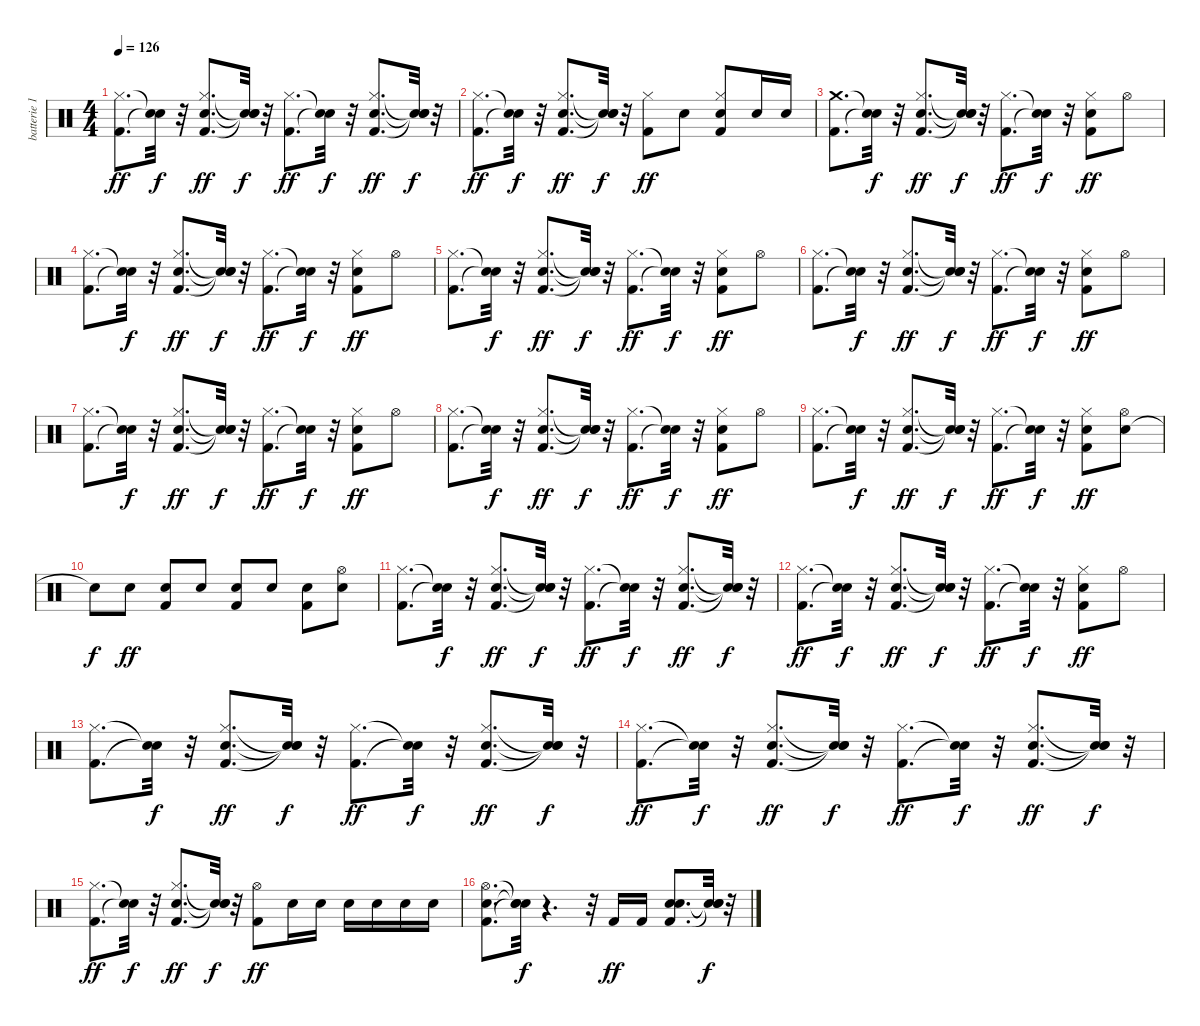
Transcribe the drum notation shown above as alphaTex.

\track ("batterie 1" "batterie 1") {instrument percussion}
\staff {score}
\articulation defaults
\ts (4 4)
\tempo 126
\clef neutral
\ks c
("Kick (hit) 2" "Hi-Hat (closed)").8{d dy ff} ("Snare (hit)"{t} "Snare (hit)"{t}).32{dy f} r.32 ("Kick (hit) 2" "Snare (hit) 2" "Hi-Hat (closed)").8{d dy ff} ("Snare (hit)"{t} "Snare (hit)"{t} "Snare (hit)"{t}).32{dy f} r.32 ("Kick (hit) 2" "Hi-Hat (closed)").8{d dy ff} ("Snare (hit)"{t} "Snare (hit)"{t}).32{dy f} r.32 ("Kick (hit) 2" "Snare (hit) 2" "Hi-Hat (closed)").8{d dy ff} ("Snare (hit)"{t} "Snare (hit)"{t} "Snare (hit)"{t}).32{dy f} r.32 |
("Kick (hit) 2" "Hi-Hat (closed)").8{d dy ff} ("Snare (hit)"{t} "Snare (hit)"{t}).32{dy f} r.32 ("Kick (hit) 2" "Snare (hit) 2" "Hi-Hat (closed)").8{d dy ff} ("Snare (hit)"{t} "Snare (hit)"{t} "Snare (hit)"{t}).32{dy f} r.32 ("Kick (hit) 2" "Hi-Hat (closed)").8{dy ff} "Snare (hit) 2".8 ("Kick (hit) 2" "Snare (hit) 2" "Hi-Hat (closed)").8 "Snare (hit) 2".16 "Snare (hit) 2".16 |
("Kick (hit) 2" "Crash medium (hit)").8{d} ("Snare (hit)"{t} "Snare (hit)"{t}).32{dy f} r.32 ("Kick (hit) 2" "Snare (hit) 2" "Hi-Hat (closed)").8{d dy ff} ("Snare (hit)"{t} "Snare (hit)"{t} "Snare (hit)"{t}).32{dy f} r.32 ("Kick (hit) 2" "Hi-Hat (closed)").8{d dy ff} ("Snare (hit)"{t} "Snare (hit)"{t}).32{dy f} r.32 ("Kick (hit) 2" "Snare (hit) 2" "Hi-Hat (closed)").8{dy ff} "Hi-Hat (open)".8 |
("Kick (hit) 2" "Hi-Hat (closed)").8{d} ("Snare (hit)"{t} "Snare (hit)"{t}).32{dy f} r.32 ("Kick (hit) 2" "Snare (hit) 2" "Hi-Hat (closed)").8{d dy ff} ("Snare (hit)"{t} "Snare (hit)"{t} "Snare (hit)"{t}).32{dy f} r.32 ("Kick (hit) 2" "Hi-Hat (closed)").8{d dy ff} ("Snare (hit)"{t} "Snare (hit)"{t}).32{dy f} r.32 ("Kick (hit) 2" "Snare (hit) 2" "Hi-Hat (closed)").8{dy ff} "Hi-Hat (open)".8 |
("Kick (hit) 2" "Hi-Hat (closed)").8{d} ("Snare (hit)"{t} "Snare (hit)"{t}).32{dy f} r.32 ("Kick (hit) 2" "Snare (hit) 2" "Hi-Hat (closed)").8{d dy ff} ("Snare (hit)"{t} "Snare (hit)"{t} "Snare (hit)"{t}).32{dy f} r.32 ("Kick (hit) 2" "Hi-Hat (closed)").8{d dy ff} ("Snare (hit)"{t} "Snare (hit)"{t}).32{dy f} r.32 ("Kick (hit) 2" "Snare (hit) 2" "Hi-Hat (closed)").8{dy ff} "Hi-Hat (open)".8 |
("Kick (hit) 2" "Hi-Hat (closed)").8{d} ("Snare (hit)"{t} "Snare (hit)"{t}).32{dy f} r.32 ("Kick (hit) 2" "Snare (hit) 2" "Hi-Hat (closed)").8{d dy ff} ("Snare (hit)"{t} "Snare (hit)"{t} "Snare (hit)"{t}).32{dy f} r.32 ("Kick (hit) 2" "Hi-Hat (closed)").8{d dy ff} ("Snare (hit)"{t} "Snare (hit)"{t}).32{dy f} r.32 ("Kick (hit) 2" "Snare (hit) 2" "Hi-Hat (closed)").8{dy ff} "Hi-Hat (open)".8 |
("Kick (hit) 2" "Hi-Hat (closed)").8{d} ("Snare (hit)"{t} "Snare (hit)"{t}).32{dy f} r.32 ("Kick (hit) 2" "Snare (hit) 2" "Hi-Hat (closed)").8{d dy ff} ("Snare (hit)"{t} "Snare (hit)"{t} "Snare (hit)"{t}).32{dy f} r.32 ("Kick (hit) 2" "Hi-Hat (closed)").8{d dy ff} ("Snare (hit)"{t} "Snare (hit)"{t}).32{dy f} r.32 ("Kick (hit) 2" "Snare (hit) 2" "Hi-Hat (closed)").8{dy ff} "Hi-Hat (open)".8 |
("Kick (hit) 2" "Hi-Hat (closed)").8{d} ("Snare (hit)"{t} "Snare (hit)"{t}).32{dy f} r.32 ("Kick (hit) 2" "Snare (hit) 2" "Hi-Hat (closed)").8{d dy ff} ("Snare (hit)"{t} "Snare (hit)"{t} "Snare (hit)"{t}).32{dy f} r.32 ("Kick (hit) 2" "Hi-Hat (closed)").8{d dy ff} ("Snare (hit)"{t} "Snare (hit)"{t}).32{dy f} r.32 ("Kick (hit) 2" "Snare (hit) 2" "Hi-Hat (closed)").8{dy ff} "Hi-Hat (open)".8 |
("Kick (hit) 2" "Hi-Hat (closed)").8{d} ("Snare (hit)"{t} "Snare (hit)"{t}).32{dy f} r.32 ("Kick (hit) 2" "Snare (hit) 2" "Hi-Hat (closed)").8{d dy ff} ("Snare (hit)"{t} "Snare (hit)"{t} "Snare (hit)"{t}).32{dy f} r.32 ("Kick (hit) 2" "Hi-Hat (closed)").8{d dy ff} ("Snare (hit)"{t} "Snare (hit)"{t}).32{dy f} r.32 ("Kick (hit) 2" "Snare (hit) 2" "Hi-Hat (closed)").8{dy ff} ("Snare (hit) 2" "Hi-Hat (open)").8 |
"Snare (hit)"{t}.8{dy f} "Snare (hit) 2".8{dy ff} ("Kick (hit) 2" "Snare (hit) 2").8 "Snare (hit) 2".8 ("Kick (hit) 2" "Snare (hit) 2").8 "Snare (hit) 2".8 ("Kick (hit) 2" "Snare (hit) 2").8 ("Snare (hit) 2" "Hi-Hat (open)").8 |
("Kick (hit) 2" "Hi-Hat (closed)").8{d} ("Snare (hit)"{t} "Snare (hit)"{t}).32{dy f} r.32 ("Kick (hit) 2" "Snare (hit) 2" "Hi-Hat (closed)").8{d dy ff} ("Snare (hit)"{t} "Snare (hit)"{t} "Snare (hit)"{t}).32{dy f} r.32 ("Kick (hit) 2" "Hi-Hat (closed)").8{d dy ff} ("Snare (hit)"{t} "Snare (hit)"{t}).32{dy f} r.32 ("Kick (hit) 2" "Snare (hit) 2" "Hi-Hat (closed)").8{d dy ff} ("Snare (hit)"{t} "Snare (hit)"{t} "Snare (hit)"{t}).32{dy f} r.32 |
("Kick (hit) 2" "Hi-Hat (closed)").8{d dy ff} ("Snare (hit)"{t} "Snare (hit)"{t}).32{dy f} r.32 ("Kick (hit) 2" "Snare (hit) 2" "Hi-Hat (closed)").8{d dy ff} ("Snare (hit)"{t} "Snare (hit)"{t} "Snare (hit)"{t}).32{dy f} r.32 ("Kick (hit) 2" "Hi-Hat (closed)").8{d dy ff} ("Snare (hit)"{t} "Snare (hit)"{t}).32{dy f} r.32 ("Kick (hit) 2" "Snare (hit) 2" "Hi-Hat (closed)").8{dy ff} "Hi-Hat (open)".8 |
("Kick (hit) 2" "Hi-Hat (closed)").8{d} ("Snare (hit)"{t} "Snare (hit)"{t}).32{dy f} r.32 ("Kick (hit) 2" "Snare (hit) 2" "Hi-Hat (closed)").8{d dy ff} ("Snare (hit)"{t} "Snare (hit)"{t} "Snare (hit)"{t}).32{dy f} r.32 ("Kick (hit) 2" "Hi-Hat (closed)").8{d dy ff} ("Snare (hit)"{t} "Snare (hit)"{t}).32{dy f} r.32 ("Kick (hit) 2" "Snare (hit) 2" "Hi-Hat (closed)").8{d dy ff} ("Snare (hit)"{t} "Snare (hit)"{t} "Snare (hit)"{t}).32{dy f} r.32 |
("Kick (hit) 2" "Hi-Hat (closed)").8{d dy ff} ("Snare (hit)"{t} "Snare (hit)"{t}).32{dy f} r.32 ("Kick (hit) 2" "Snare (hit) 2" "Hi-Hat (closed)").8{d dy ff} ("Snare (hit)"{t} "Snare (hit)"{t} "Snare (hit)"{t}).32{dy f} r.32 ("Kick (hit) 2" "Hi-Hat (closed)").8{d dy ff} ("Snare (hit)"{t} "Snare (hit)"{t}).32{dy f} r.32 ("Kick (hit) 2" "Snare (hit) 2" "Hi-Hat (closed)").8{d dy ff} ("Snare (hit)"{t} "Snare (hit)"{t} "Snare (hit)"{t}).32{dy f} r.32 |
("Kick (hit) 2" "Hi-Hat (closed)").8{d dy ff} ("Snare (hit)"{t} "Snare (hit)"{t}).32{dy f} r.32 ("Kick (hit) 2" "Snare (hit) 2" "Hi-Hat (closed)").8{d dy ff} ("Snare (hit)"{t} "Snare (hit)"{t} "Snare (hit)"{t}).32{dy f} r.32 ("Kick (hit) 2" "Hi-Hat (open)").8{dy ff} "Snare (hit) 2".16 "Snare (hit) 2".16 "Snare (hit) 2".16 "Snare (hit) 2".16 "Snare (hit) 2".16 "Snare (hit) 2".16 |
("Kick (hit) 2" "Snare (hit) 2" "Hi-Hat (open)").8{d} ("Snare (hit)"{t} "Snare (hit)"{t} "Snare (hit)"{t}).32{dy f} r.4{d} r.32 "Kick (hit) 2".16{dy ff} "Kick (hit) 2".16 ("Kick (hit) 2" "Snare (hit) 2" "Electric Snare (hit)").8{d} ("Snare (hit)"{t} "Snare (hit)"{t} "Snare (hit)"{t}).32{dy f} r.32
